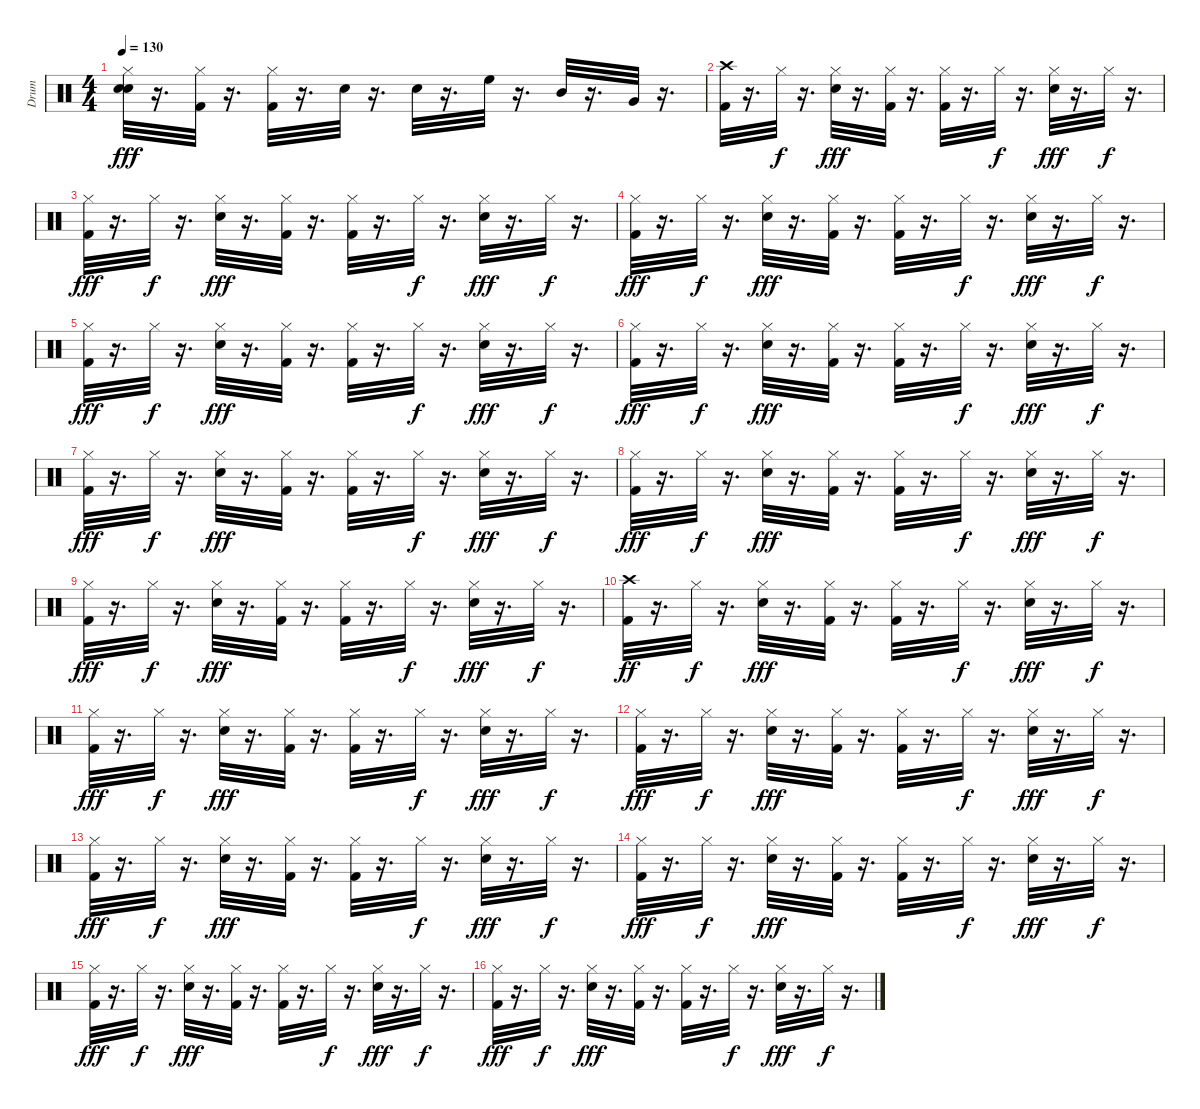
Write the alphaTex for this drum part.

\track ("Drum" "Drum") {instrument percussion}
\staff {score}
\articulation defaults
\ts (4 4)
\tempo 130
\clef neutral
\ks c
("Electric Snare (hit)" "Hi-Hat (closed)" "Electric Snare (hit)").32{dy fff} r.16{d} ("Kick (hit) 2" "Hi-Hat (closed)").32 r.16{d} ("Hi-Hat (closed)" "Kick (hit) 2").32 r.16{d} "Electric Snare (hit)".32 r.16{d} "Electric Snare (hit)".32 r.16{d} "High Floor Tom (hit)".32 r.16{d} "Mid Tom (hit)".32 r.16{d} "Very Low Tom (hit)".32 r.16{d} |
("Crash high (hit)" "Kick (hit) 2").32 r.16{d} "Hi-Hat (closed)".32{dy f} r.16{d} ("Hi-Hat (closed)" "Electric Snare (hit)").32{dy fff} r.16{d} ("Kick (hit) 2" "Hi-Hat (closed)").32 r.16{d} ("Kick (hit) 2" "Hi-Hat (closed)").32 r.16{d} "Hi-Hat (closed)".32{dy f} r.16{d} ("Hi-Hat (closed)" "Electric Snare (hit)").32{dy fff} r.16{d} "Hi-Hat (closed)".32{dy f} r.16{d} |
("Kick (hit) 2" "Hi-Hat (closed)").32{dy fff} r.16{d} "Hi-Hat (closed)".32{dy f} r.16{d} ("Hi-Hat (closed)" "Electric Snare (hit)").32{dy fff} r.16{d} ("Kick (hit) 2" "Hi-Hat (closed)").32 r.16{d} ("Kick (hit) 2" "Hi-Hat (closed)").32 r.16{d} "Hi-Hat (closed)".32{dy f} r.16{d} ("Hi-Hat (closed)" "Electric Snare (hit)").32{dy fff} r.16{d} "Hi-Hat (closed)".32{dy f} r.16{d} |
("Kick (hit) 2" "Hi-Hat (closed)").32{dy fff} r.16{d} "Hi-Hat (closed)".32{dy f} r.16{d} ("Hi-Hat (closed)" "Electric Snare (hit)").32{dy fff} r.16{d} ("Kick (hit) 2" "Hi-Hat (closed)").32 r.16{d} ("Kick (hit) 2" "Hi-Hat (closed)").32 r.16{d} "Hi-Hat (closed)".32{dy f} r.16{d} ("Hi-Hat (closed)" "Electric Snare (hit)").32{dy fff} r.16{d} "Hi-Hat (closed)".32{dy f} r.16{d} |
("Kick (hit) 2" "Hi-Hat (closed)").32{dy fff} r.16{d} "Hi-Hat (closed)".32{dy f} r.16{d} ("Hi-Hat (closed)" "Electric Snare (hit)").32{dy fff} r.16{d} ("Kick (hit) 2" "Hi-Hat (closed)").32 r.16{d} ("Kick (hit) 2" "Hi-Hat (closed)").32 r.16{d} "Hi-Hat (closed)".32{dy f} r.16{d} ("Hi-Hat (closed)" "Electric Snare (hit)").32{dy fff} r.16{d} "Hi-Hat (closed)".32{dy f} r.16{d} |
("Kick (hit) 2" "Hi-Hat (closed)").32{dy fff} r.16{d} "Hi-Hat (closed)".32{dy f} r.16{d} ("Hi-Hat (closed)" "Electric Snare (hit)").32{dy fff} r.16{d} ("Kick (hit) 2" "Hi-Hat (closed)").32 r.16{d} ("Kick (hit) 2" "Hi-Hat (closed)").32 r.16{d} "Hi-Hat (closed)".32{dy f} r.16{d} ("Hi-Hat (closed)" "Electric Snare (hit)").32{dy fff} r.16{d} "Hi-Hat (closed)".32{dy f} r.16{d} |
("Kick (hit) 2" "Hi-Hat (closed)").32{dy fff} r.16{d} "Hi-Hat (closed)".32{dy f} r.16{d} ("Hi-Hat (closed)" "Electric Snare (hit)").32{dy fff} r.16{d} ("Kick (hit) 2" "Hi-Hat (closed)").32 r.16{d} ("Kick (hit) 2" "Hi-Hat (closed)").32 r.16{d} "Hi-Hat (closed)".32{dy f} r.16{d} ("Hi-Hat (closed)" "Electric Snare (hit)").32{dy fff} r.16{d} "Hi-Hat (closed)".32{dy f} r.16{d} |
("Kick (hit) 2" "Hi-Hat (closed)").32{dy fff} r.16{d} "Hi-Hat (closed)".32{dy f} r.16{d} ("Hi-Hat (closed)" "Electric Snare (hit)").32{dy fff} r.16{d} ("Kick (hit) 2" "Hi-Hat (closed)").32 r.16{d} ("Kick (hit) 2" "Hi-Hat (closed)").32 r.16{d} "Hi-Hat (closed)".32{dy f} r.16{d} ("Hi-Hat (closed)" "Electric Snare (hit)").32{dy fff} r.16{d} "Hi-Hat (closed)".32{dy f} r.16{d} |
("Kick (hit) 2" "Hi-Hat (closed)").32{dy fff} r.16{d} "Hi-Hat (closed)".32{dy f} r.16{d} ("Hi-Hat (closed)" "Electric Snare (hit)").32{dy fff} r.16{d} ("Kick (hit) 2" "Hi-Hat (closed)").32 r.16{d} ("Kick (hit) 2" "Hi-Hat (closed)").32 r.16{d} "Hi-Hat (closed)".32{dy f} r.16{d} ("Hi-Hat (closed)" "Electric Snare (hit)").32{dy fff} r.16{d} "Hi-Hat (closed)".32{dy f} r.16{d} |
("Kick (hit) 2" "Crash high (hit)").32{dy ff} r.16{d} "Hi-Hat (closed)".32{dy f} r.16{d} ("Hi-Hat (closed)" "Electric Snare (hit)").32{dy fff} r.16{d} ("Kick (hit) 2" "Hi-Hat (closed)").32 r.16{d} ("Kick (hit) 2" "Hi-Hat (closed)").32 r.16{d} "Hi-Hat (closed)".32{dy f} r.16{d} ("Hi-Hat (closed)" "Electric Snare (hit)").32{dy fff} r.16{d} "Hi-Hat (closed)".32{dy f} r.16{d} |
("Kick (hit) 2" "Hi-Hat (closed)").32{dy fff} r.16{d} "Hi-Hat (closed)".32{dy f} r.16{d} ("Hi-Hat (closed)" "Electric Snare (hit)").32{dy fff} r.16{d} ("Kick (hit) 2" "Hi-Hat (closed)").32 r.16{d} ("Kick (hit) 2" "Hi-Hat (closed)").32 r.16{d} "Hi-Hat (closed)".32{dy f} r.16{d} ("Hi-Hat (closed)" "Electric Snare (hit)").32{dy fff} r.16{d} "Hi-Hat (closed)".32{dy f} r.16{d} |
("Kick (hit) 2" "Hi-Hat (closed)").32{dy fff} r.16{d} "Hi-Hat (closed)".32{dy f} r.16{d} ("Hi-Hat (closed)" "Electric Snare (hit)").32{dy fff} r.16{d} ("Kick (hit) 2" "Hi-Hat (closed)").32 r.16{d} ("Kick (hit) 2" "Hi-Hat (closed)").32 r.16{d} "Hi-Hat (closed)".32{dy f} r.16{d} ("Hi-Hat (closed)" "Electric Snare (hit)").32{dy fff} r.16{d} "Hi-Hat (closed)".32{dy f} r.16{d} |
("Kick (hit) 2" "Hi-Hat (closed)").32{dy fff} r.16{d} "Hi-Hat (closed)".32{dy f} r.16{d} ("Hi-Hat (closed)" "Electric Snare (hit)").32{dy fff} r.16{d} ("Kick (hit) 2" "Hi-Hat (closed)").32 r.16{d} ("Kick (hit) 2" "Hi-Hat (closed)").32 r.16{d} "Hi-Hat (closed)".32{dy f} r.16{d} ("Hi-Hat (closed)" "Electric Snare (hit)").32{dy fff} r.16{d} "Hi-Hat (closed)".32{dy f} r.16{d} |
("Kick (hit) 2" "Hi-Hat (closed)").32{dy fff} r.16{d} "Hi-Hat (closed)".32{dy f} r.16{d} ("Hi-Hat (closed)" "Electric Snare (hit)").32{dy fff} r.16{d} ("Kick (hit) 2" "Hi-Hat (closed)").32 r.16{d} ("Kick (hit) 2" "Hi-Hat (closed)").32 r.16{d} "Hi-Hat (closed)".32{dy f} r.16{d} ("Hi-Hat (closed)" "Electric Snare (hit)").32{dy fff} r.16{d} "Hi-Hat (closed)".32{dy f} r.16{d} |
("Kick (hit) 2" "Hi-Hat (closed)").32{dy fff} r.16{d} "Hi-Hat (closed)".32{dy f} r.16{d} ("Hi-Hat (closed)" "Electric Snare (hit)").32{dy fff} r.16{d} ("Kick (hit) 2" "Hi-Hat (closed)").32 r.16{d} ("Kick (hit) 2" "Hi-Hat (closed)").32 r.16{d} "Hi-Hat (closed)".32{dy f} r.16{d} ("Hi-Hat (closed)" "Electric Snare (hit)").32{dy fff} r.16{d} "Hi-Hat (closed)".32{dy f} r.16{d} |
("Kick (hit) 2" "Hi-Hat (closed)").32{dy fff} r.16{d} "Hi-Hat (closed)".32{dy f} r.16{d} ("Hi-Hat (closed)" "Electric Snare (hit)").32{dy fff} r.16{d} ("Kick (hit) 2" "Hi-Hat (closed)").32 r.16{d} ("Kick (hit) 2" "Hi-Hat (closed)").32 r.16{d} "Hi-Hat (closed)".32{dy f} r.16{d} ("Hi-Hat (closed)" "Electric Snare (hit)").32{dy fff} r.16{d} "Hi-Hat (closed)".32{dy f} r.16{d}
